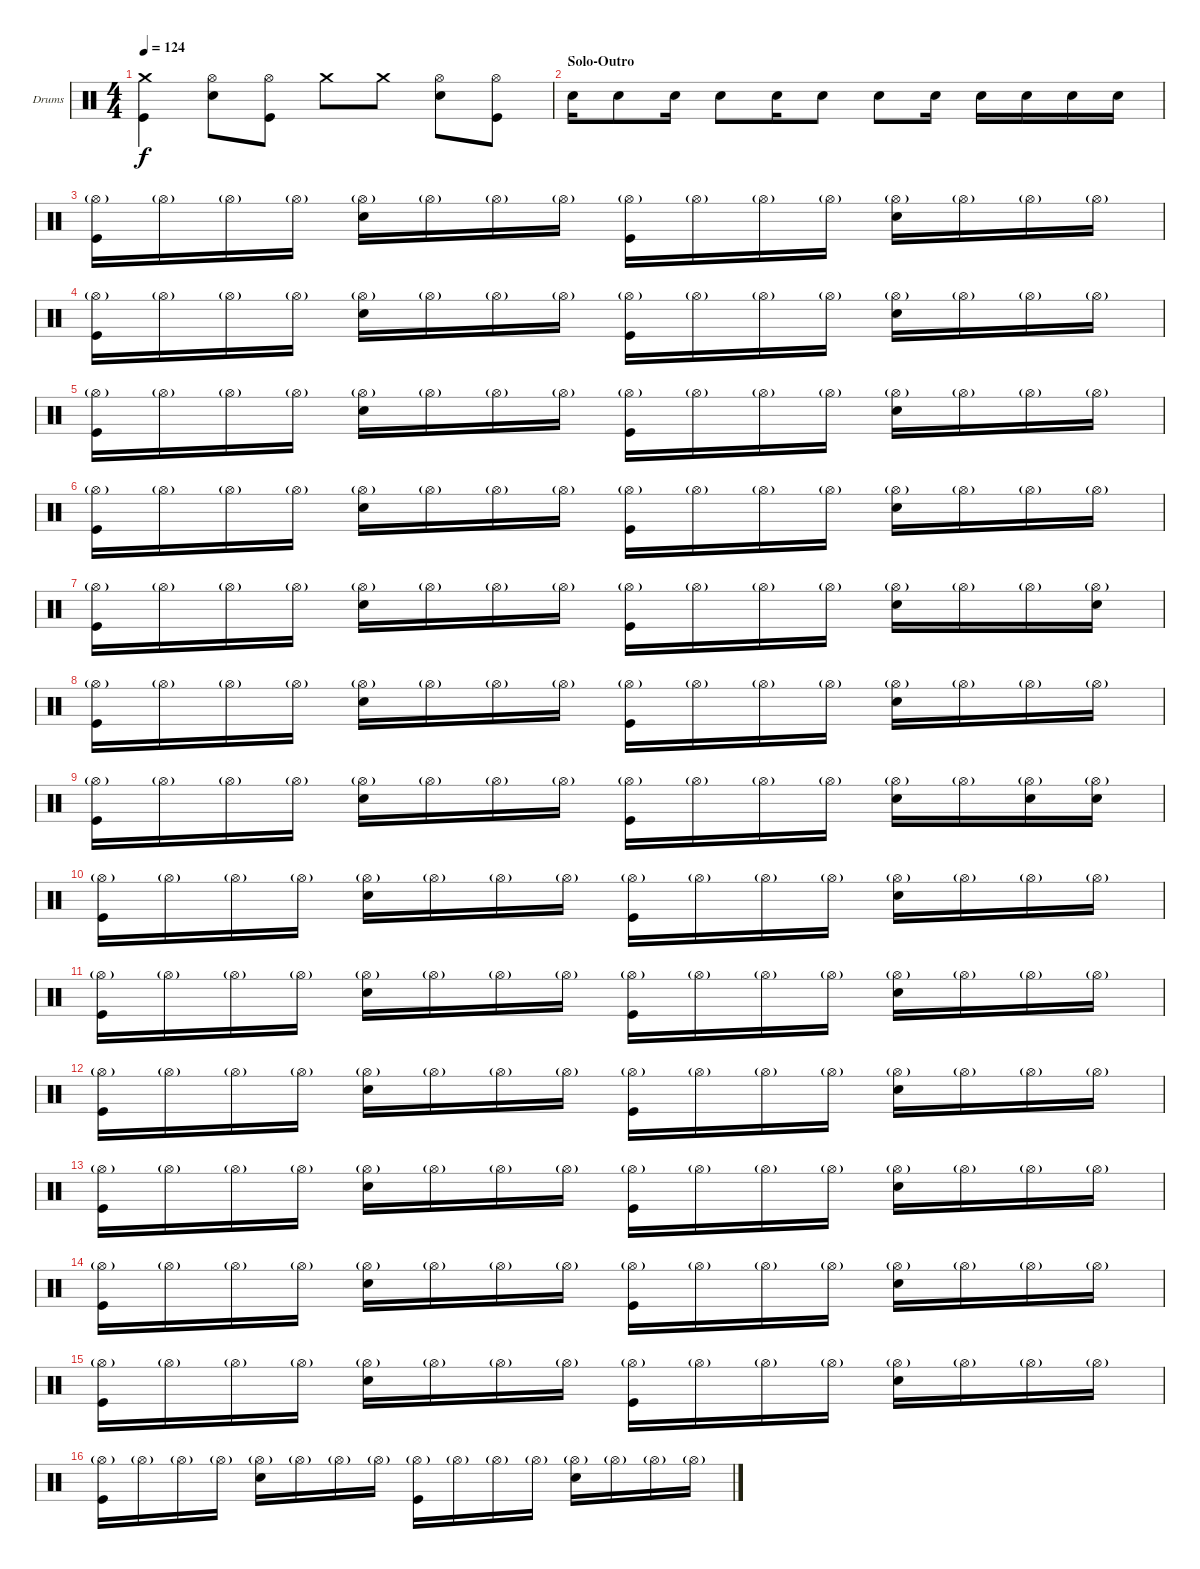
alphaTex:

\bracketExtendMode groupsimilarinstruments
\firstSystemTrackNameOrientation horizontal
\otherSystemsTrackNameOrientation horizontal
\track ("Drumkit" "Drums") {instrument percussion}
\staff {score}
\articulation defaults
\ts (4 4)
\tempo 124
\clef neutral
\ks c
("Kick (hit)" "Crash medium (hit)").4{dy f} ("Snare (hit) 2" "Hi-Hat (open)").8 ("Kick (hit)" "Hi-Hat (open)").8 "Crash medium (hit)".8 "Crash medium (hit)".8 ("Snare (hit) 2" "Hi-Hat (open)").8 ("Kick (hit)" "Hi-Hat (open)").8 |
\section ("" "Solo-Outro")
"Snare (hit) 2".16 "Snare (hit) 2".8 "Snare (hit) 2".16 "Snare (hit) 2".8 "Snare (hit) 2".16 "Snare (hit) 2".8 "Snare (hit) 2".8 "Snare (hit) 2".16 "Snare (hit) 2".16 "Snare (hit) 2".16 "Snare (hit) 2".16 "Snare (hit) 2".16 |
("Kick (hit)" "Hi-Hat (open)"{g}).16 "Hi-Hat (open)"{g}.16 "Hi-Hat (open)"{g}.16 "Hi-Hat (open)"{g}.16 ("Snare (hit) 2" "Hi-Hat (open)"{g}).16 "Hi-Hat (open)"{g}.16 "Hi-Hat (open)"{g}.16 "Hi-Hat (open)"{g}.16 ("Kick (hit)" "Hi-Hat (open)"{g}).16 "Hi-Hat (open)"{g}.16 "Hi-Hat (open)"{g}.16 "Hi-Hat (open)"{g}.16 ("Snare (hit) 2" "Hi-Hat (open)"{g}).16 "Hi-Hat (open)"{g}.16 "Hi-Hat (open)"{g}.16 "Hi-Hat (open)"{g}.16 |
("Kick (hit)" "Hi-Hat (open)"{g}).16 "Hi-Hat (open)"{g}.16 "Hi-Hat (open)"{g}.16 "Hi-Hat (open)"{g}.16 ("Snare (hit) 2" "Hi-Hat (open)"{g}).16 "Hi-Hat (open)"{g}.16 "Hi-Hat (open)"{g}.16 "Hi-Hat (open)"{g}.16 ("Kick (hit)" "Hi-Hat (open)"{g}).16 "Hi-Hat (open)"{g}.16 "Hi-Hat (open)"{g}.16 "Hi-Hat (open)"{g}.16 ("Snare (hit) 2" "Hi-Hat (open)"{g}).16 "Hi-Hat (open)"{g}.16 "Hi-Hat (open)"{g}.16 "Hi-Hat (open)"{g}.16 |
("Kick (hit)" "Hi-Hat (open)"{g}).16 "Hi-Hat (open)"{g}.16 "Hi-Hat (open)"{g}.16 "Hi-Hat (open)"{g}.16 ("Snare (hit) 2" "Hi-Hat (open)"{g}).16 "Hi-Hat (open)"{g}.16 "Hi-Hat (open)"{g}.16 "Hi-Hat (open)"{g}.16 ("Kick (hit)" "Hi-Hat (open)"{g}).16 "Hi-Hat (open)"{g}.16 "Hi-Hat (open)"{g}.16 "Hi-Hat (open)"{g}.16 ("Snare (hit) 2" "Hi-Hat (open)"{g}).16 "Hi-Hat (open)"{g}.16 "Hi-Hat (open)"{g}.16 "Hi-Hat (open)"{g}.16 |
("Kick (hit)" "Hi-Hat (open)"{g}).16 "Hi-Hat (open)"{g}.16 "Hi-Hat (open)"{g}.16 "Hi-Hat (open)"{g}.16 ("Snare (hit) 2" "Hi-Hat (open)"{g}).16 "Hi-Hat (open)"{g}.16 "Hi-Hat (open)"{g}.16 "Hi-Hat (open)"{g}.16 ("Kick (hit)" "Hi-Hat (open)"{g}).16 "Hi-Hat (open)"{g}.16 "Hi-Hat (open)"{g}.16 "Hi-Hat (open)"{g}.16 ("Snare (hit) 2" "Hi-Hat (open)"{g}).16 "Hi-Hat (open)"{g}.16 "Hi-Hat (open)"{g}.16 "Hi-Hat (open)"{g}.16 |
("Kick (hit)" "Hi-Hat (open)"{g}).16 "Hi-Hat (open)"{g}.16 "Hi-Hat (open)"{g}.16 "Hi-Hat (open)"{g}.16 ("Snare (hit) 2" "Hi-Hat (open)"{g}).16 "Hi-Hat (open)"{g}.16 "Hi-Hat (open)"{g}.16 "Hi-Hat (open)"{g}.16 ("Kick (hit)" "Hi-Hat (open)"{g}).16 "Hi-Hat (open)"{g}.16 "Hi-Hat (open)"{g}.16 "Hi-Hat (open)"{g}.16 ("Snare (hit) 2" "Hi-Hat (open)"{g}).16 "Hi-Hat (open)"{g}.16 "Hi-Hat (open)"{g}.16 ("Snare (hit) 2" "Hi-Hat (open)"{g}).16 |
("Kick (hit)" "Hi-Hat (open)"{g}).16 "Hi-Hat (open)"{g}.16 "Hi-Hat (open)"{g}.16 "Hi-Hat (open)"{g}.16 ("Snare (hit) 2" "Hi-Hat (open)"{g}).16 "Hi-Hat (open)"{g}.16 "Hi-Hat (open)"{g}.16 "Hi-Hat (open)"{g}.16 ("Kick (hit)" "Hi-Hat (open)"{g}).16 "Hi-Hat (open)"{g}.16 "Hi-Hat (open)"{g}.16 "Hi-Hat (open)"{g}.16 ("Snare (hit) 2" "Hi-Hat (open)"{g}).16 "Hi-Hat (open)"{g}.16 "Hi-Hat (open)"{g}.16 "Hi-Hat (open)"{g}.16 |
("Kick (hit)" "Hi-Hat (open)"{g}).16 "Hi-Hat (open)"{g}.16 "Hi-Hat (open)"{g}.16 "Hi-Hat (open)"{g}.16 ("Snare (hit) 2" "Hi-Hat (open)"{g}).16 "Hi-Hat (open)"{g}.16 "Hi-Hat (open)"{g}.16 "Hi-Hat (open)"{g}.16 ("Kick (hit)" "Hi-Hat (open)"{g}).16 "Hi-Hat (open)"{g}.16 "Hi-Hat (open)"{g}.16 "Hi-Hat (open)"{g}.16 ("Snare (hit) 2" "Hi-Hat (open)"{g}).16 "Hi-Hat (open)"{g}.16 ("Snare (hit) 2" "Hi-Hat (open)"{g}).16 ("Snare (hit) 2" "Hi-Hat (open)"{g}).16 |
("Kick (hit)" "Hi-Hat (open)"{g}).16 "Hi-Hat (open)"{g}.16 "Hi-Hat (open)"{g}.16 "Hi-Hat (open)"{g}.16 ("Snare (hit) 2" "Hi-Hat (open)"{g}).16 "Hi-Hat (open)"{g}.16 "Hi-Hat (open)"{g}.16 "Hi-Hat (open)"{g}.16 ("Kick (hit)" "Hi-Hat (open)"{g}).16 "Hi-Hat (open)"{g}.16 "Hi-Hat (open)"{g}.16 "Hi-Hat (open)"{g}.16 ("Snare (hit) 2" "Hi-Hat (open)"{g}).16 "Hi-Hat (open)"{g}.16 "Hi-Hat (open)"{g}.16 "Hi-Hat (open)"{g}.16 |
("Kick (hit)" "Hi-Hat (open)"{g}).16 "Hi-Hat (open)"{g}.16 "Hi-Hat (open)"{g}.16 "Hi-Hat (open)"{g}.16 ("Snare (hit) 2" "Hi-Hat (open)"{g}).16 "Hi-Hat (open)"{g}.16 "Hi-Hat (open)"{g}.16 "Hi-Hat (open)"{g}.16 ("Kick (hit)" "Hi-Hat (open)"{g}).16 "Hi-Hat (open)"{g}.16 "Hi-Hat (open)"{g}.16 "Hi-Hat (open)"{g}.16 ("Snare (hit) 2" "Hi-Hat (open)"{g}).16 "Hi-Hat (open)"{g}.16 "Hi-Hat (open)"{g}.16 "Hi-Hat (open)"{g}.16 |
("Kick (hit)" "Hi-Hat (open)"{g}).16 "Hi-Hat (open)"{g}.16 "Hi-Hat (open)"{g}.16 "Hi-Hat (open)"{g}.16 ("Snare (hit) 2" "Hi-Hat (open)"{g}).16 "Hi-Hat (open)"{g}.16 "Hi-Hat (open)"{g}.16 "Hi-Hat (open)"{g}.16 ("Kick (hit)" "Hi-Hat (open)"{g}).16 "Hi-Hat (open)"{g}.16 "Hi-Hat (open)"{g}.16 "Hi-Hat (open)"{g}.16 ("Snare (hit) 2" "Hi-Hat (open)"{g}).16 "Hi-Hat (open)"{g}.16 "Hi-Hat (open)"{g}.16 "Hi-Hat (open)"{g}.16 |
("Kick (hit)" "Hi-Hat (open)"{g}).16 "Hi-Hat (open)"{g}.16 "Hi-Hat (open)"{g}.16 "Hi-Hat (open)"{g}.16 ("Snare (hit) 2" "Hi-Hat (open)"{g}).16 "Hi-Hat (open)"{g}.16 "Hi-Hat (open)"{g}.16 "Hi-Hat (open)"{g}.16 ("Kick (hit)" "Hi-Hat (open)"{g}).16 "Hi-Hat (open)"{g}.16 "Hi-Hat (open)"{g}.16 "Hi-Hat (open)"{g}.16 ("Snare (hit) 2" "Hi-Hat (open)"{g}).16 "Hi-Hat (open)"{g}.16 "Hi-Hat (open)"{g}.16 "Hi-Hat (open)"{g}.16 |
("Kick (hit)" "Hi-Hat (open)"{g}).16 "Hi-Hat (open)"{g}.16 "Hi-Hat (open)"{g}.16 "Hi-Hat (open)"{g}.16 ("Snare (hit) 2" "Hi-Hat (open)"{g}).16 "Hi-Hat (open)"{g}.16 "Hi-Hat (open)"{g}.16 "Hi-Hat (open)"{g}.16 ("Kick (hit)" "Hi-Hat (open)"{g}).16 "Hi-Hat (open)"{g}.16 "Hi-Hat (open)"{g}.16 "Hi-Hat (open)"{g}.16 ("Snare (hit) 2" "Hi-Hat (open)"{g}).16 "Hi-Hat (open)"{g}.16 "Hi-Hat (open)"{g}.16 "Hi-Hat (open)"{g}.16 |
("Kick (hit)" "Hi-Hat (open)"{g}).16 "Hi-Hat (open)"{g}.16 "Hi-Hat (open)"{g}.16 "Hi-Hat (open)"{g}.16 ("Snare (hit) 2" "Hi-Hat (open)"{g}).16 "Hi-Hat (open)"{g}.16 "Hi-Hat (open)"{g}.16 "Hi-Hat (open)"{g}.16 ("Kick (hit)" "Hi-Hat (open)"{g}).16 "Hi-Hat (open)"{g}.16 "Hi-Hat (open)"{g}.16 "Hi-Hat (open)"{g}.16 ("Snare (hit) 2" "Hi-Hat (open)"{g}).16 "Hi-Hat (open)"{g}.16 "Hi-Hat (open)"{g}.16 "Hi-Hat (open)"{g}.16 |
("Kick (hit)" "Hi-Hat (open)"{g}).16 "Hi-Hat (open)"{g}.16 "Hi-Hat (open)"{g}.16 "Hi-Hat (open)"{g}.16 ("Snare (hit) 2" "Hi-Hat (open)"{g}).16 "Hi-Hat (open)"{g}.16 "Hi-Hat (open)"{g}.16 "Hi-Hat (open)"{g}.16 ("Kick (hit)" "Hi-Hat (open)"{g}).16 "Hi-Hat (open)"{g}.16 "Hi-Hat (open)"{g}.16 "Hi-Hat (open)"{g}.16 ("Snare (hit) 2" "Hi-Hat (open)"{g}).16 "Hi-Hat (open)"{g}.16 "Hi-Hat (open)"{g}.16 "Hi-Hat (open)"{g}.16
